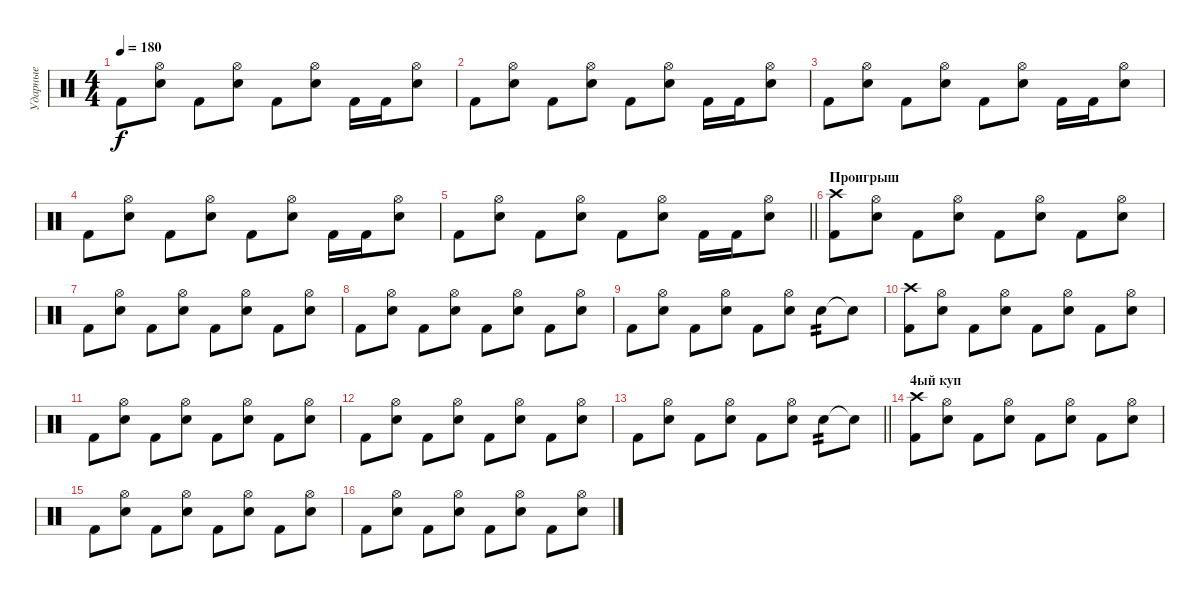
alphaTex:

\track ("Ударные" "Ударные") {instrument percussion}
\staff {score}
\articulation defaults
\ts (4 4)
\tempo 180
\clef neutral
\ks c "Kick (hit) 2".8{dy f}
("Hi-Hat (open)" "Electric Snare (hit)").8 "Kick (hit) 2".8 ("Hi-Hat (open)" "Electric Snare (hit)").8 "Kick (hit) 2".8 ("Hi-Hat (open)" "Electric Snare (hit)").8 "Kick (hit) 2".16 "Kick (hit) 2".16 ("Hi-Hat (open)" "Electric Snare (hit)").8 |
"Kick (hit) 2".8 ("Hi-Hat (open)" "Electric Snare (hit)").8 "Kick (hit) 2".8 ("Hi-Hat (open)" "Electric Snare (hit)").8 "Kick (hit) 2".8 ("Hi-Hat (open)" "Electric Snare (hit)").8 "Kick (hit) 2".16 "Kick (hit) 2".16 ("Hi-Hat (open)" "Electric Snare (hit)").8 |
"Kick (hit) 2".8 ("Hi-Hat (open)" "Electric Snare (hit)").8 "Kick (hit) 2".8 ("Hi-Hat (open)" "Electric Snare (hit)").8 "Kick (hit) 2".8 ("Hi-Hat (open)" "Electric Snare (hit)").8 "Kick (hit) 2".16 "Kick (hit) 2".16 ("Hi-Hat (open)" "Electric Snare (hit)").8 |
"Kick (hit) 2".8 ("Hi-Hat (open)" "Electric Snare (hit)").8 "Kick (hit) 2".8 ("Hi-Hat (open)" "Electric Snare (hit)").8 "Kick (hit) 2".8 ("Hi-Hat (open)" "Electric Snare (hit)").8 "Kick (hit) 2".16 "Kick (hit) 2".16 ("Hi-Hat (open)" "Electric Snare (hit)").8 |
\barLineRight lightlight "Kick (hit) 2".8
("Hi-Hat (open)" "Electric Snare (hit)").8 "Kick (hit) 2".8 ("Hi-Hat (open)" "Electric Snare (hit)").8 "Kick (hit) 2".8 ("Hi-Hat (open)" "Electric Snare (hit)").8 "Kick (hit) 2".16 "Kick (hit) 2".16 ("Hi-Hat (open)" "Electric Snare (hit)").8 |
\section ("" "Проигрыш")
("Crash high (hit)" "Kick (hit) 2").8 ("Hi-Hat (open)" "Electric Snare (hit)").8 "Kick (hit) 2".8 ("Hi-Hat (open)" "Electric Snare (hit)").8 "Kick (hit) 2".8 ("Hi-Hat (open)" "Electric Snare (hit)").8 "Kick (hit) 2".8 ("Hi-Hat (open)" "Electric Snare (hit)").8 |
"Kick (hit) 2".8 ("Hi-Hat (open)" "Electric Snare (hit)").8 "Kick (hit) 2".8 ("Hi-Hat (open)" "Electric Snare (hit)").8 "Kick (hit) 2".8 ("Hi-Hat (open)" "Electric Snare (hit)").8 "Kick (hit) 2".8 ("Hi-Hat (open)" "Electric Snare (hit)").8 |
"Kick (hit) 2".8 ("Hi-Hat (open)" "Electric Snare (hit)").8 "Kick (hit) 2".8 ("Hi-Hat (open)" "Electric Snare (hit)").8 "Kick (hit) 2".8 ("Hi-Hat (open)" "Electric Snare (hit)").8 "Kick (hit) 2".8 ("Hi-Hat (open)" "Electric Snare (hit)").8 |
"Kick (hit) 2".8 ("Hi-Hat (open)" "Electric Snare (hit)").8 "Kick (hit) 2".8 ("Hi-Hat (open)" "Electric Snare (hit)").8 "Kick (hit) 2".8 ("Hi-Hat (open)" "Electric Snare (hit)").8 "Electric Snare (hit)".8{tp 2} "Electric Snare (hit)"{t}.8 |
("Crash high (hit)" "Kick (hit) 2").8 ("Hi-Hat (open)" "Electric Snare (hit)").8 "Kick (hit) 2".8 ("Hi-Hat (open)" "Electric Snare (hit)").8 "Kick (hit) 2".8 ("Hi-Hat (open)" "Electric Snare (hit)").8 "Kick (hit) 2".8 ("Hi-Hat (open)" "Electric Snare (hit)").8 |
"Kick (hit) 2".8 ("Hi-Hat (open)" "Electric Snare (hit)").8 "Kick (hit) 2".8 ("Hi-Hat (open)" "Electric Snare (hit)").8 "Kick (hit) 2".8 ("Hi-Hat (open)" "Electric Snare (hit)").8 "Kick (hit) 2".8 ("Hi-Hat (open)" "Electric Snare (hit)").8 |
"Kick (hit) 2".8 ("Hi-Hat (open)" "Electric Snare (hit)").8 "Kick (hit) 2".8 ("Hi-Hat (open)" "Electric Snare (hit)").8 "Kick (hit) 2".8 ("Hi-Hat (open)" "Electric Snare (hit)").8 "Kick (hit) 2".8 ("Hi-Hat (open)" "Electric Snare (hit)").8 |
\barLineRight lightlight "Kick (hit) 2".8
("Hi-Hat (open)" "Electric Snare (hit)").8 "Kick (hit) 2".8 ("Hi-Hat (open)" "Electric Snare (hit)").8 "Kick (hit) 2".8 ("Hi-Hat (open)" "Electric Snare (hit)").8 "Electric Snare (hit)".8{tp 2} "Electric Snare (hit)"{t}.8 |
\section ("" "4ый куп")
("Crash high (hit)" "Kick (hit) 2").8 ("Hi-Hat (open)" "Electric Snare (hit)").8 "Kick (hit) 2".8 ("Hi-Hat (open)" "Electric Snare (hit)").8 "Kick (hit) 2".8 ("Hi-Hat (open)" "Electric Snare (hit)").8 "Kick (hit) 2".8 ("Hi-Hat (open)" "Electric Snare (hit)").8 |
"Kick (hit) 2".8 ("Hi-Hat (open)" "Electric Snare (hit)").8 "Kick (hit) 2".8 ("Hi-Hat (open)" "Electric Snare (hit)").8 "Kick (hit) 2".8 ("Hi-Hat (open)" "Electric Snare (hit)").8 "Kick (hit) 2".8 ("Hi-Hat (open)" "Electric Snare (hit)").8 |
"Kick (hit) 2".8 ("Hi-Hat (open)" "Electric Snare (hit)").8 "Kick (hit) 2".8 ("Hi-Hat (open)" "Electric Snare (hit)").8 "Kick (hit) 2".8 ("Hi-Hat (open)" "Electric Snare (hit)").8 "Kick (hit) 2".8 ("Hi-Hat (open)" "Electric Snare (hit)").8
